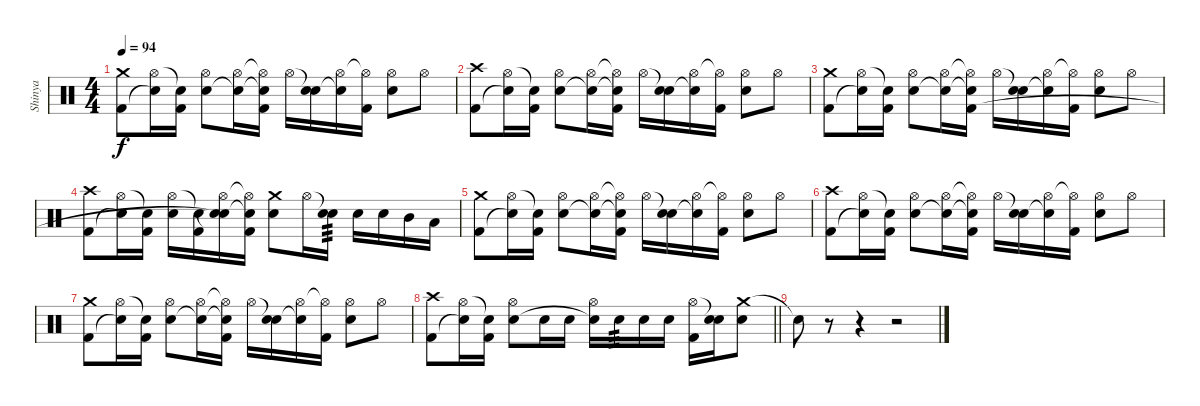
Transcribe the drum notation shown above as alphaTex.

\track ("Shinya" "Shinya") {instrument percussion}
\staff {score}
\articulation defaults
\ts (4 4)
\tempo 94
\clef neutral
\ks c
("Crash medium (hit)" "Kick (hit) 2").8{dy f} ("Hi-Hat (open)" "Snare (hit)"{t}).16 ("Snare (hit)"{t} "Kick (hit) 2").16 ("Hi-Hat (open)" "Snare (hit) 2").8 ("Hi-Hat (open)" "Snare (hit)"{t}).16 ("Hi-Hat (open)"{t} "Snare (hit)"{t} "Kick (hit) 2").16 "Hi-Hat (open)".16 ("Snare (hit)"{t} "Snare (hit) 2").16 ("Hi-Hat (open)" "Snare (hit) 2"{t}).16 ("Hi-Hat (open)"{t} "Kick (hit) 2").16 ("Hi-Hat (open)" "Snare (hit) 2").8 "Hi-Hat (open)".8 |
("Crash high (hit)" "Kick (hit) 2").8 ("Hi-Hat (open)" "Snare (hit)"{t}).16 ("Snare (hit)"{t} "Kick (hit) 2").16 ("Hi-Hat (open)" "Snare (hit) 2").8 ("Hi-Hat (open)" "Snare (hit)"{t}).16 ("Hi-Hat (open)"{t} "Snare (hit)"{t} "Kick (hit) 2").16 "Hi-Hat (open)".16 ("Snare (hit)"{t} "Snare (hit) 2").16 ("Hi-Hat (open)" "Snare (hit) 2"{t}).16 ("Hi-Hat (open)"{t} "Kick (hit) 2").16 ("Hi-Hat (open)" "Snare (hit) 2").8 "Hi-Hat (open)".8 |
("Crash medium (hit)" "Kick (hit) 2").8 ("Hi-Hat (open)" "Snare (hit)"{t}).16 ("Snare (hit)"{t} "Kick (hit) 2").16 ("Hi-Hat (open)" "Snare (hit) 2").8 ("Hi-Hat (open)" "Snare (hit)"{t}).16 ("Hi-Hat (open)"{t} "Snare (hit)"{t} "Kick (hit) 2").16 "Hi-Hat (open)".16 ("Snare (hit)"{t} "Snare (hit) 2").16 ("Hi-Hat (open)" "Snare (hit) 2"{t}).16 ("Hi-Hat (open)"{t} "Kick (hit) 2").16 ("Hi-Hat (open)" "Snare (hit) 2").8 "Hi-Hat (open)".8 |
("Crash high (hit)" "Kick (hit) 2").8 ("Hi-Hat (open)" "Snare (hit)"{t}).16 ("Snare (hit)"{t} "Kick (hit) 2").16 ("Hi-Hat (open)" "Snare (hit) 2").16 ("Snare (hit)"{t} "Kick (hit) 2").16 ("Hi-Hat (open)" "Snare (hit)"{t} "Snare (hit)"{t}).16 ("Hi-Hat (open)"{t} "Snare (hit)"{t} "Kick (hit) 2").16 ("Crash medium (hit)" "Snare (hit) 2").8 "Hi-Hat (open)".16 ("Snare (hit)"{t} "Snare (hit) 2").16{tp 3} "Snare (hit) 2".16 "Snare (hit) 2".16 "Mid Tom (hit)".16 "Low Tom (hit)".16 |
("Crash medium (hit)" "Kick (hit) 2").8 ("Hi-Hat (open)" "Snare (hit)"{t}).16 ("Snare (hit)"{t} "Kick (hit) 2").16 ("Hi-Hat (open)" "Snare (hit) 2").8 ("Hi-Hat (open)" "Snare (hit)"{t}).16 ("Hi-Hat (open)"{t} "Snare (hit)"{t} "Kick (hit) 2").16 "Hi-Hat (open)".16 ("Snare (hit)"{t} "Snare (hit) 2").16 ("Hi-Hat (open)" "Snare (hit) 2"{t}).16 ("Hi-Hat (open)"{t} "Kick (hit) 2").16 ("Hi-Hat (open)" "Snare (hit) 2").8 "Hi-Hat (open)".8 |
("Crash high (hit)" "Kick (hit) 2").8 ("Hi-Hat (open)" "Snare (hit)"{t}).16 ("Snare (hit)"{t} "Kick (hit) 2").16 ("Hi-Hat (open)" "Snare (hit) 2").8 ("Hi-Hat (open)" "Snare (hit)"{t}).16 ("Hi-Hat (open)"{t} "Snare (hit)"{t} "Kick (hit) 2").16 "Hi-Hat (open)".16 ("Snare (hit)"{t} "Snare (hit) 2").16 ("Hi-Hat (open)" "Snare (hit) 2"{t}).16 ("Hi-Hat (open)"{t} "Kick (hit) 2").16 ("Hi-Hat (open)" "Snare (hit) 2").8 "Hi-Hat (open)".8 |
("Crash medium (hit)" "Kick (hit) 2").8 ("Hi-Hat (open)" "Snare (hit)"{t}).16 ("Snare (hit)"{t} "Kick (hit) 2").16 ("Hi-Hat (open)" "Snare (hit) 2").8 ("Hi-Hat (open)" "Snare (hit)"{t}).16 ("Hi-Hat (open)"{t} "Snare (hit)"{t} "Kick (hit) 2").16 "Hi-Hat (open)".16 ("Snare (hit)"{t} "Snare (hit) 2").16 ("Hi-Hat (open)" "Snare (hit) 2"{t}).16 ("Hi-Hat (open)"{t} "Kick (hit) 2").16 ("Hi-Hat (open)" "Snare (hit) 2").8 "Hi-Hat (open)".8 |
\barLineRight lightlight
("Crash high (hit)" "Kick (hit) 2").8 ("Hi-Hat (open)" "Snare (hit)"{t}).16 ("Snare (hit)"{t} "Kick (hit) 2").16 ("Hi-Hat (open)" "Snare (hit) 2").8 "Snare (hit) 2".16 "Snare (hit) 2".16 ("Hi-Hat (open)" "Snare (hit)"{t}).16 "Snare (hit) 2".16{tp 3} "Snare (hit) 2".16 "Snare (hit) 2".16 ("Hi-Hat (open)" "Kick (hit) 2").16 ("Snare (hit)"{t} "Snare (hit) 2").16 ("Crash medium (hit)" "Snare (hit) 2").8 |
"Snare (hit)"{t}.8 r.8 r.4 r.2
